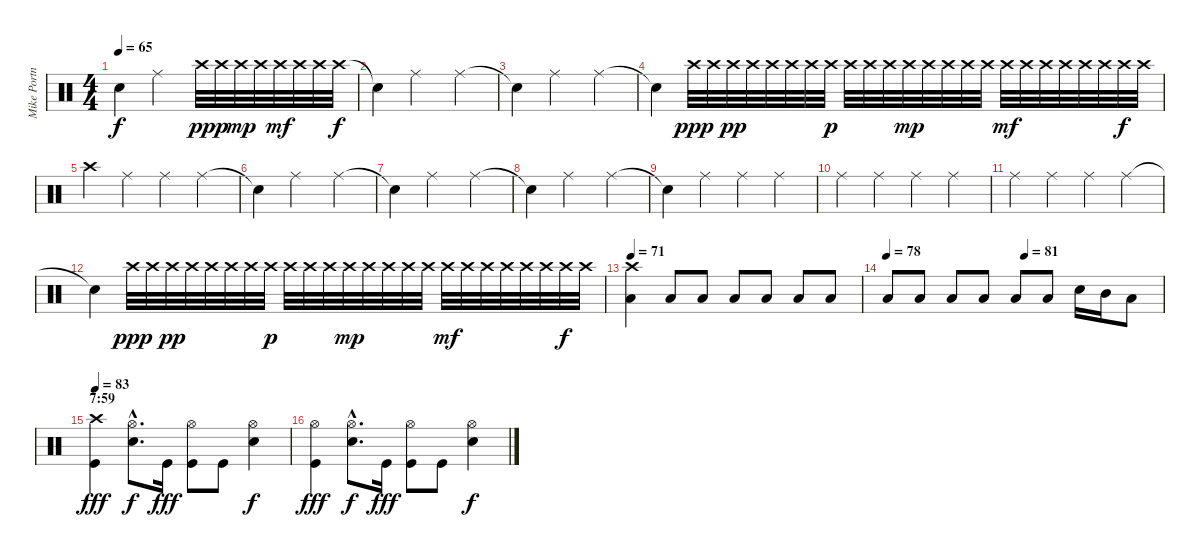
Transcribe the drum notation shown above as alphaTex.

\track ("Mike Portnoy" "Mike Portn") {instrument percussion}
\staff {score}
\articulation defaults
\ts (4 4)
\tempo 65
\clef neutral
\ks c "Snare (hit)"{t}.4{dy f} "Ride (middle)".2 "Crash high (hit)".32{dy pp} "Crash high (hit)".32{dy p} "Crash high (hit)".32{dy mp} "Crash high (hit)".32 "Crash high (hit)".32{dy mf} "Crash high (hit)".32 "Crash high (hit)".32 "Crash high (hit)".32{dy f}
|
"Snare (hit)"{t}.4 "Ride (middle)".2 "Ride (middle)".4 |
"Snare (hit)"{t}.4 "Ride (middle)".2 "Ride (middle)".4 |
"Snare (hit)"{t}.4 "Crash high (hit)".32{dy ppp} "Crash high (hit)".32 "Crash high (hit)".32{dy pp} "Crash high (hit)".32 "Crash high (hit)".32 "Crash high (hit)".32 "Crash high (hit)".32 "Crash high (hit)".32{dy p} "Crash high (hit)".32 "Crash high (hit)".32 "Crash high (hit)".32 "Crash high (hit)".32{dy mp} "Crash high (hit)".32 "Crash high (hit)".32 "Crash high (hit)".32 "Crash high (hit)".32 "Crash high (hit)".32{dy mf} "Crash high (hit)".32 "Crash high (hit)".32 "Crash high (hit)".32 "Crash high (hit)".32 "Crash high (hit)".32 "Crash high (hit)".32{dy f} "Crash high (hit)".32 |
"Crash high (hit)".4 "Ride (middle)".4 "Ride (middle)".4 "Ride (middle)".4 |
"Snare (hit)"{t}.4 "Ride (middle)".2 "Ride (middle)".4 |
"Snare (hit)"{t}.4 "Ride (middle)".2 "Ride (middle)".4 |
"Snare (hit)"{t}.4 "Ride (middle)".2 "Ride (middle)".4 |
"Snare (hit)"{t}.4 "Ride (middle)".4 "Ride (middle)".4 "Ride (middle)".4 |
"Ride (middle)".4 "Ride (middle)".4 "Ride (middle)".4 "Ride (middle)".4 |
"Ride (middle)".4 "Ride (middle)".4 "Ride (middle)".4 "Ride (middle)".4 |
"Snare (hit)"{t}.4 "Crash high (hit)".32{dy ppp} "Crash high (hit)".32 "Crash high (hit)".32{dy pp} "Crash high (hit)".32 "Crash high (hit)".32 "Crash high (hit)".32 "Crash high (hit)".32 "Crash high (hit)".32{dy p} "Crash high (hit)".32 "Crash high (hit)".32 "Crash high (hit)".32 "Crash high (hit)".32{dy mp} "Crash high (hit)".32 "Crash high (hit)".32 "Crash high (hit)".32 "Crash high (hit)".32 "Crash high (hit)".32{dy mf} "Crash high (hit)".32 "Crash high (hit)".32 "Crash high (hit)".32 "Crash high (hit)".32 "Crash high (hit)".32 "Crash high (hit)".32{dy f} "Crash high (hit)".32 |
\tempo 71
("Crash high (hit)" "Low Tom (hit)").4 "Low Tom (hit)".8 "Low Tom (hit)".8 "Low Tom (hit)".8 "Low Tom (hit)".8 "Low Tom (hit)".8 "Low Tom (hit)".8 |
\tempo 78
\tempo (81 0.5)
"Low Tom (hit)".8 "Low Tom (hit)".8 "Low Tom (hit)".8 "Low Tom (hit)".8 "Low Tom (hit)".8 "Low Tom (hit)".8 "Electric Snare (hit)".16 "Mid Tom (hit)".16 "Low Tom (hit)".8 |
\section ("" "7:59")
\tempo 83
("Crash high (hit)" "Kick (hit)").4{dy fff} ("Hi-Hat (open)"{hac} "Electric Snare (hit)"{hac}).8{d dy f} "Kick (hit)".16{dy fff} ("Hi-Hat (open)" "Kick (hit)").8 "Kick (hit)".8 ("Hi-Hat (open)" "Electric Snare (hit)").4{dy f} |
("Hi-Hat (open)" "Kick (hit)").4{dy fff} ("Hi-Hat (open)"{hac} "Electric Snare (hit)"{hac}).8{d dy f} "Kick (hit)".16{dy fff} ("Hi-Hat (open)" "Kick (hit)").8 "Kick (hit)".8 ("Hi-Hat (open)" "Electric Snare (hit)").4{dy f}
